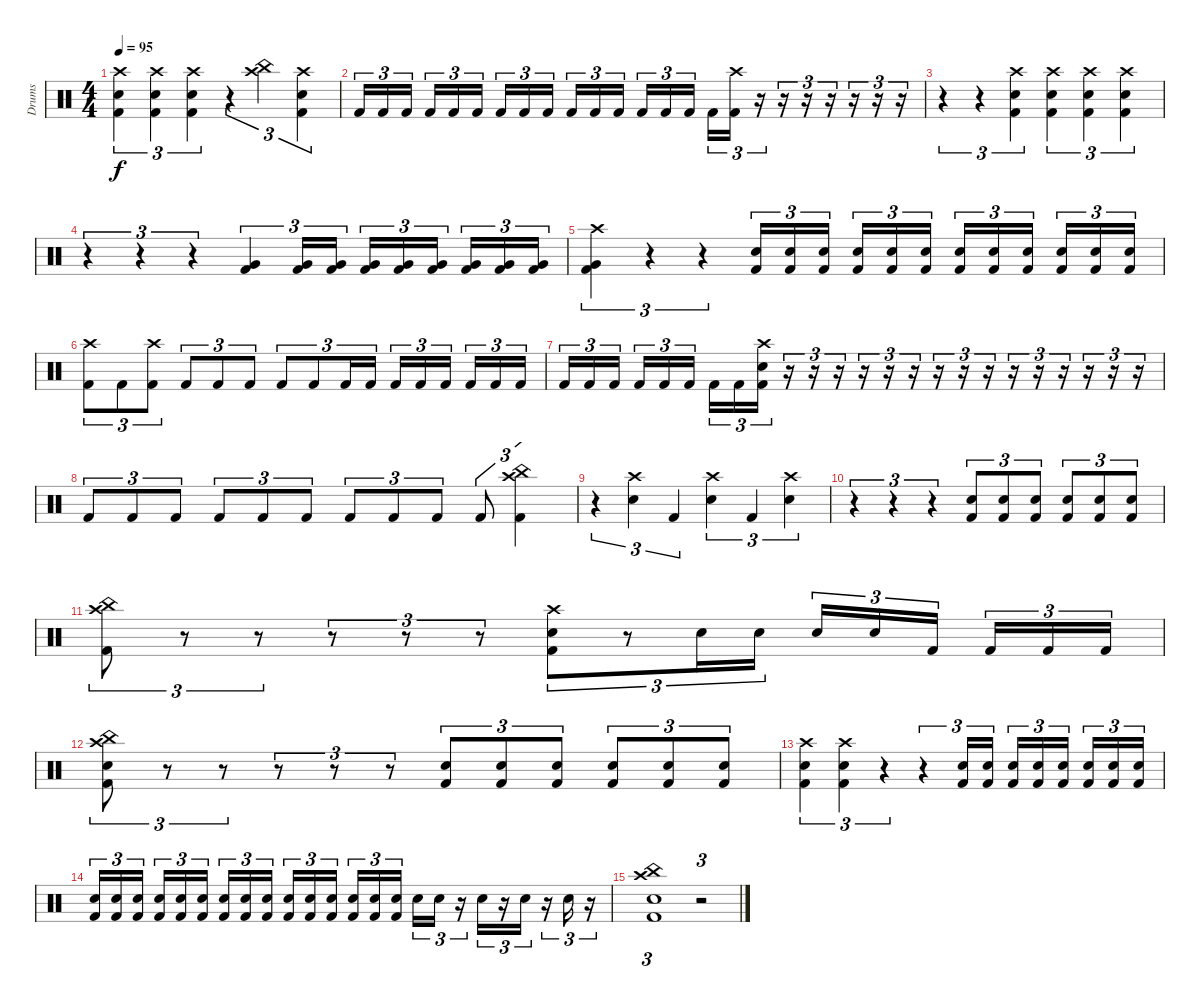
\track ("Drums" "Drums") {instrument percussion}
\staff {score}
\articulation defaults
\ts (4 4)
\tempo 95
\clef neutral
\ks c
("Crash high (hit)" "Electric Snare (hit)" "Kick (hit) 2").4{tu (3 2) dy f} ("Crash high (hit)" "Electric Snare (hit)" "Kick (hit) 2").4{tu (3 2)} ("Crash high (hit)" "Electric Snare (hit)" "Kick (hit) 2").4{tu (3 2)} r.4{tu (3 2)} ("Crash high (hit)" "China (hit)").4{tu (3 2)} ("Crash high (hit)" "Electric Snare (hit)" "Kick (hit) 2").4{tu (3 2)} |
"Kick (hit) 2".16{tu (3 2)} "Kick (hit) 2".16{tu (3 2)} "Kick (hit) 2".16{tu (3 2)} "Kick (hit) 2".16{tu (3 2)} "Kick (hit) 2".16{tu (3 2)} "Kick (hit) 2".16{tu (3 2)} "Kick (hit) 2".16{tu (3 2)} "Kick (hit) 2".16{tu (3 2)} "Kick (hit) 2".16{tu (3 2)} "Kick (hit) 2".16{tu (3 2)} "Kick (hit) 2".16{tu (3 2)} "Kick (hit) 2".16{tu (3 2)} "Kick (hit) 2".16{tu (3 2)} "Kick (hit) 2".16{tu (3 2)} "Kick (hit) 2".16{tu (3 2)} "Kick (hit) 2".16{tu (3 2)} ("Crash high (hit)" "Kick (hit) 2").16{tu (3 2)} r.16{tu (3 2)} r.16{tu (3 2)} r.16{tu (3 2)} r.16{tu (3 2)} r.16{tu (3 2)} r.16{tu (3 2)} r.16{tu (3 2)} |
r.4{tu (3 2)} r.4{tu (3 2)} ("Crash high (hit)" "Electric Snare (hit)" "Kick (hit) 2").4{tu (3 2)} ("Crash high (hit)" "Electric Snare (hit)" "Kick (hit) 2").4{tu (3 2)} ("Crash high (hit)" "Electric Snare (hit)" "Kick (hit) 2").4{tu (3 2)} ("Crash high (hit)" "Electric Snare (hit)" "Kick (hit) 2").4{tu (3 2)} |
r.4{tu (3 2)} r.4{tu (3 2)} r.4{tu (3 2)} ("Very Low Tom (hit)" "Kick (hit) 2").4{tu (3 2)} ("Very Low Tom (hit)" "Kick (hit) 2").16{tu (3 2)} ("Very Low Tom (hit)" "Kick (hit) 2").16{tu (3 2)} ("Very Low Tom (hit)" "Kick (hit) 2").16{tu (3 2)} ("Very Low Tom (hit)" "Kick (hit) 2").16{tu (3 2)} ("Very Low Tom (hit)" "Kick (hit) 2").16{tu (3 2)} ("Very Low Tom (hit)" "Kick (hit) 2").16{tu (3 2)} ("Very Low Tom (hit)" "Kick (hit) 2").16{tu (3 2)} ("Very Low Tom (hit)" "Kick (hit) 2").16{tu (3 2)} |
("Crash high (hit)" "Very Low Tom (hit)" "Kick (hit) 2").4{tu (3 2)} r.4{tu (3 2)} r.4{tu (3 2)} ("Electric Snare (hit)" "Kick (hit) 2").16{tu (3 2)} ("Electric Snare (hit)" "Kick (hit) 2").16{tu (3 2)} ("Electric Snare (hit)" "Kick (hit) 2").16{tu (3 2)} ("Electric Snare (hit)" "Kick (hit) 2").16{tu (3 2)} ("Electric Snare (hit)" "Kick (hit) 2").16{tu (3 2)} ("Electric Snare (hit)" "Kick (hit) 2").16{tu (3 2)} ("Electric Snare (hit)" "Kick (hit) 2").16{tu (3 2)} ("Electric Snare (hit)" "Kick (hit) 2").16{tu (3 2)} ("Electric Snare (hit)" "Kick (hit) 2").16{tu (3 2)} ("Electric Snare (hit)" "Kick (hit) 2").16{tu (3 2)} ("Electric Snare (hit)" "Kick (hit) 2").16{tu (3 2)} ("Electric Snare (hit)" "Kick (hit) 2").16{tu (3 2)} |
("Crash high (hit)" "Kick (hit) 2").8{tu (3 2)} "Kick (hit) 2".8{tu (3 2)} ("Crash high (hit)" "Kick (hit) 2").8{tu (3 2)} "Kick (hit) 2".8{tu (3 2)} "Kick (hit) 2".8{tu (3 2)} "Kick (hit) 2".8{tu (3 2)} "Kick (hit) 2".8{tu (3 2)} "Kick (hit) 2".8{tu (3 2)} "Kick (hit) 2".16{tu (3 2)} "Kick (hit) 2".16{tu (3 2)} "Kick (hit) 2".16{tu (3 2)} "Kick (hit) 2".16{tu (3 2)} "Kick (hit) 2".16{tu (3 2)} "Kick (hit) 2".16{tu (3 2)} "Kick (hit) 2".16{tu (3 2)} "Kick (hit) 2".16{tu (3 2)} |
"Kick (hit) 2".16{tu (3 2)} "Kick (hit) 2".16{tu (3 2)} "Kick (hit) 2".16{tu (3 2)} "Kick (hit) 2".16{tu (3 2)} "Kick (hit) 2".16{tu (3 2)} "Kick (hit) 2".16{tu (3 2)} "Kick (hit) 2".16{tu (3 2)} "Kick (hit) 2".16{tu (3 2)} ("Crash high (hit)" "Electric Snare (hit)" "Kick (hit) 2").16{tu (3 2)} r.16{tu (3 2)} r.16{tu (3 2)} r.16{tu (3 2)} r.16{tu (3 2)} r.16{tu (3 2)} r.16{tu (3 2)} r.16{tu (3 2)} r.16{tu (3 2)} r.16{tu (3 2)} r.16{tu (3 2)} r.16{tu (3 2)} r.16{tu (3 2)} r.16{tu (3 2)} r.16{tu (3 2)} r.16{tu (3 2)} |
"Kick (hit) 2".8{tu (3 2)} "Kick (hit) 2".8{tu (3 2)} "Kick (hit) 2".8{tu (3 2)} "Kick (hit) 2".8{tu (3 2)} "Kick (hit) 2".8{tu (3 2)} "Kick (hit) 2".8{tu (3 2)} "Kick (hit) 2".8{tu (3 2)} "Kick (hit) 2".8{tu (3 2)} "Kick (hit) 2".8{tu (3 2)} "Kick (hit) 2".8{tu (3 2)} ("Crash high (hit)" "China (hit)" "Kick (hit) 2").4{tu (3 2)} |
r.4{tu (3 2)} ("Crash high (hit)" "Electric Snare (hit)").4{tu (3 2)} "Kick (hit) 2".4{tu (3 2)} ("Crash high (hit)" "Electric Snare (hit)").4{tu (3 2)} "Kick (hit) 2".4{tu (3 2)} ("Crash high (hit)" "Electric Snare (hit)").4{tu (3 2)} |
r.4{tu (3 2)} r.4{tu (3 2)} r.4{tu (3 2)} ("Electric Snare (hit)" "Kick (hit) 2").8{tu (3 2)} ("Electric Snare (hit)" "Kick (hit) 2").8{tu (3 2)} ("Electric Snare (hit)" "Kick (hit) 2").8{tu (3 2)} ("Electric Snare (hit)" "Kick (hit) 2").8{tu (3 2)} ("Electric Snare (hit)" "Kick (hit) 2").8{tu (3 2)} ("Electric Snare (hit)" "Kick (hit) 2").8{tu (3 2)} |
("Crash high (hit)" "China (hit)" "Kick (hit) 2").8{tu (3 2)} r.8{tu (3 2)} r.8{tu (3 2)} r.8{tu (3 2)} r.8{tu (3 2)} r.8{tu (3 2)} ("Crash high (hit)" "Electric Snare (hit)" "Kick (hit) 2").8{tu (3 2)} r.8{tu (3 2)} "Electric Snare (hit)".16{tu (3 2)} "Electric Snare (hit)".16{tu (3 2)} "Electric Snare (hit)".16{tu (3 2)} "Electric Snare (hit)".16{tu (3 2)} "Kick (hit) 2".16{tu (3 2)} "Kick (hit) 2".16{tu (3 2)} "Kick (hit) 2".16{tu (3 2)} "Kick (hit) 2".16{tu (3 2)} |
("Crash high (hit)" "Electric Snare (hit)" "China (hit)" "Kick (hit) 2").8{tu (3 2)} r.8{tu (3 2)} r.8{tu (3 2)} r.8{tu (3 2)} r.8{tu (3 2)} r.8{tu (3 2)} ("Electric Snare (hit)" "Kick (hit) 2").8{tu (3 2)} ("Electric Snare (hit)" "Kick (hit) 2").8{tu (3 2)} ("Electric Snare (hit)" "Kick (hit) 2").8{tu (3 2)} ("Electric Snare (hit)" "Kick (hit) 2").8{tu (3 2)} ("Electric Snare (hit)" "Kick (hit) 2").8{tu (3 2)} ("Electric Snare (hit)" "Kick (hit) 2").8{tu (3 2)} |
("Crash high (hit)" "Electric Snare (hit)" "Kick (hit) 2").4{tu (3 2)} ("Crash high (hit)" "Electric Snare (hit)" "Kick (hit) 2").4{tu (3 2)} r.4{tu (3 2)} r.4{tu (3 2)} ("Electric Snare (hit)" "Kick (hit) 2").16{tu (3 2)} ("Electric Snare (hit)" "Kick (hit) 2").16{tu (3 2)} ("Electric Snare (hit)" "Kick (hit) 2").16{tu (3 2)} ("Electric Snare (hit)" "Kick (hit) 2").16{tu (3 2)} ("Electric Snare (hit)" "Kick (hit) 2").16{tu (3 2)} ("Electric Snare (hit)" "Kick (hit) 2").16{tu (3 2)} ("Electric Snare (hit)" "Kick (hit) 2").16{tu (3 2)} ("Electric Snare (hit)" "Kick (hit) 2").16{tu (3 2)} |
("Electric Snare (hit)" "Kick (hit) 2").16{tu (3 2)} ("Electric Snare (hit)" "Kick (hit) 2").16{tu (3 2)} ("Electric Snare (hit)" "Kick (hit) 2").16{tu (3 2)} ("Electric Snare (hit)" "Kick (hit) 2").16{tu (3 2)} ("Electric Snare (hit)" "Kick (hit) 2").16{tu (3 2)} ("Electric Snare (hit)" "Kick (hit) 2").16{tu (3 2)} ("Electric Snare (hit)" "Kick (hit) 2").16{tu (3 2)} ("Electric Snare (hit)" "Kick (hit) 2").16{tu (3 2)} ("Electric Snare (hit)" "Kick (hit) 2").16{tu (3 2)} ("Electric Snare (hit)" "Kick (hit) 2").16{tu (3 2)} ("Electric Snare (hit)" "Kick (hit) 2").16{tu (3 2)} ("Electric Snare (hit)" "Kick (hit) 2").16{tu (3 2)} ("Electric Snare (hit)" "Kick (hit) 2").16{tu (3 2)} ("Electric Snare (hit)" "Kick (hit) 2").16{tu (3 2)} ("Electric Snare (hit)" "Kick (hit) 2").16{tu (3 2)} "Electric Snare (hit)".16{tu (3 2)} "Electric Snare (hit)".16{tu (3 2)} r.16{tu (3 2)} "Electric Snare (hit)".16{tu (3 2)} r.16{tu (3 2)} "Electric Snare (hit)".16{tu (3 2)} r.16{tu (3 2)} "Electric Snare (hit)".16{tu (3 2)} r.16{tu (3 2)} |
("Crash high (hit)" "Electric Snare (hit)" "China (hit)" "Kick (hit) 2").1{tu (3 2)} r.2{tu (3 2)}
